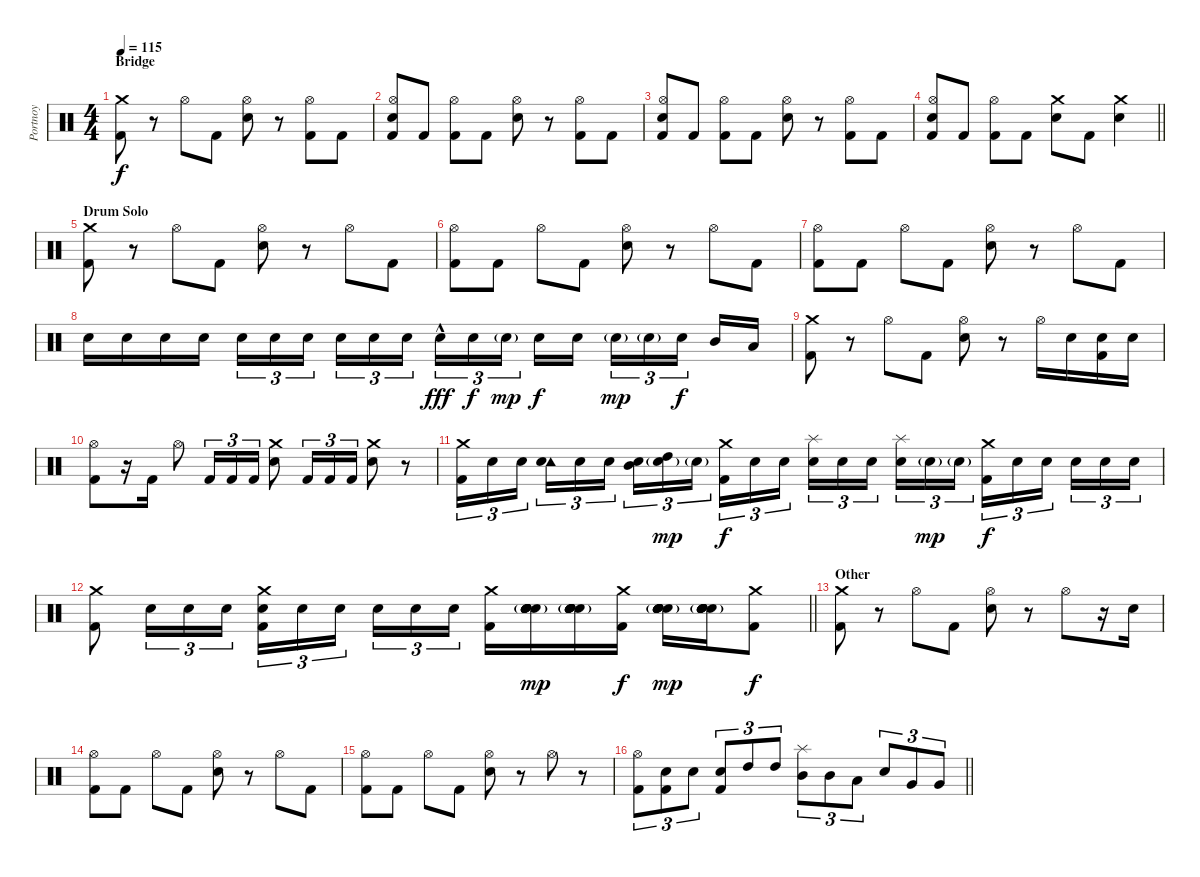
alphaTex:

\track ("Portnoy" "Portnoy") {instrument percussion}
\staff {score}
\articulation defaults
\ts (4 4)
\section ("" "Bridge")
\tempo 115
\clef neutral
\ks c
("Crash medium (hit)" "Kick (hit) 2").8{dy f} r.8 "Hi-Hat (open)".8 "Kick (hit) 2".8 ("Hi-Hat (open)" "Snare (hit) 2").8 r.8 ("Hi-Hat (open)" "Kick (hit) 2").8 "Kick (hit) 2".8 |
("Hi-Hat (open)" "Snare (hit) 2" "Kick (hit) 2").8 "Kick (hit) 2".8 ("Hi-Hat (open)" "Kick (hit) 2").8 "Kick (hit) 2".8 ("Hi-Hat (open)" "Snare (hit) 2").8 r.8 ("Hi-Hat (open)" "Kick (hit) 2").8 "Kick (hit) 2".8 |
("Hi-Hat (open)" "Snare (hit) 2" "Kick (hit) 2").8 "Kick (hit) 2".8 ("Hi-Hat (open)" "Kick (hit) 2").8 "Kick (hit) 2".8 ("Hi-Hat (open)" "Snare (hit) 2").8 r.8 ("Hi-Hat (open)" "Kick (hit) 2").8 "Kick (hit) 2".8 |
\barLineRight lightlight
("Hi-Hat (open)" "Snare (hit) 2" "Kick (hit) 2").8 "Kick (hit) 2".8 ("Hi-Hat (open)" "Kick (hit) 2").8 "Kick (hit) 2".8 ("Crash medium (hit)" "Snare (hit) 2").8 "Kick (hit) 2".8 ("Crash medium (hit)" "Snare (hit) 2").4 |
\section ("" "Drum Solo")
("Crash medium (hit)" "Kick (hit) 2").8 r.8 "Hi-Hat (open)".8 "Kick (hit) 2".8 ("Hi-Hat (open)" "Snare (hit) 2").8 r.8 "Hi-Hat (open)".8 "Kick (hit) 2".8 |
("Hi-Hat (open)" "Kick (hit) 2").8 "Kick (hit) 2".8 "Hi-Hat (open)".8 "Kick (hit) 2".8 ("Hi-Hat (open)" "Snare (hit) 2").8 r.8 "Hi-Hat (open)".8 "Kick (hit) 2".8 |
("Hi-Hat (open)" "Kick (hit) 2").8 "Kick (hit) 2".8 "Hi-Hat (open)".8 "Kick (hit) 2".8 ("Hi-Hat (open)" "Snare (hit) 2").8 r.8 "Hi-Hat (open)".8 "Kick (hit) 2".8 |
"Snare (hit) 2".16{volume 7} "Snare (hit) 2".16{volume 13} "Snare (hit) 2".16 "Snare (hit) 2".16 "Snare (hit) 2".16{tu (3 2)} "Snare (hit) 2".16{tu (3 2)} "Snare (hit) 2".16{tu (3 2) beam splitsecondary} "Snare (hit) 2".16{tu (3 2)} "Snare (hit) 2".16{tu (3 2)} "Snare (hit) 2".16{tu (3 2)} "Snare (hit) 2"{hac}.16{tu (3 2) dy fff} "Snare (hit) 2".16{tu (3 2) dy f} "Snare (hit) 2"{g}.16{tu (3 2) dy mp beam splitsecondary} "Snare (hit) 2".16{dy f} "Snare (hit) 2".16 "Snare (hit) 2"{g}.16{tu (3 2) dy mp} "Snare (hit) 2"{g}.16{tu (3 2)} "Snare (hit) 2".16{tu (3 2) dy f beam splitsecondary} "Mid Tom (hit)".16 "Low Tom (hit)".16 |
("Crash medium (hit)" "Kick (hit) 2").8 r.8 "Hi-Hat (open)".8 "Kick (hit) 2".8 ("Hi-Hat (open)" "Snare (hit) 2").8 r.8 "Hi-Hat (open)".16 "Snare (hit) 2".16 ("Snare (hit) 2" "Kick (hit) 2").16 "Snare (hit) 2".16 |
("Hi-Hat (open)" "Kick (hit) 2").8 r.16 "Kick (hit) 2".16 "Hi-Hat (open)".8 "Kick (hit) 2".16{tu (3 2)} "Kick (hit) 2".16{tu (3 2)} "Kick (hit) 2".16{tu (3 2)} ("Crash medium (hit)" "Snare (hit) 2").8 "Kick (hit) 2".16{tu (3 2)} "Kick (hit) 2".16{tu (3 2)} "Kick (hit) 2".16{tu (3 2)} ("Crash medium (hit)" "Snare (hit) 2").8 r.8 |
("Crash medium (hit)" "Kick (hit) 2").16{tu (3 2)} "Snare (hit) 2".16{tu (3 2)} "Snare (hit) 2".16{tu (3 2) beam splitsecondary} ("Tambourine (hit)" "Snare (hit) 2").16{tu (3 2)} "Snare (hit) 2".16{tu (3 2)} "Snare (hit) 2".16{tu (3 2)} ("Mid Tom (hit)" "Snare (hit) 2").16{tu (3 2)} ("High Tom (hit)" "Snare (hit) 2"{g}).16{tu (3 2) dy mp} "Snare (hit) 2"{g}.16{tu (3 2) beam splitsecondary} ("Crash medium (hit)" "Kick (hit) 2").16{tu (3 2) dy f} "Snare (hit) 2".16{tu (3 2)} "Snare (hit) 2".16{tu (3 2)} ("Splash (hit)" "Snare (hit) 2").16{tu (3 2)} "Snare (hit) 2".16{tu (3 2)} "Snare (hit) 2".16{tu (3 2) beam splitsecondary} ("Splash (hit)" "Snare (hit) 2").16{tu (3 2)} "Snare (hit) 2"{g}.16{tu (3 2) dy mp} "Snare (hit) 2"{g}.16{tu (3 2)} ("Crash medium (hit)" "Kick (hit) 2").16{tu (3 2) dy f} "Snare (hit) 2".16{tu (3 2)} "Snare (hit) 2".16{tu (3 2) beam splitsecondary} "Snare (hit) 2".16{tu (3 2)} "Snare (hit) 2".16{tu (3 2)} "Snare (hit) 2".16{tu (3 2)} |
\barLineRight lightlight
("Crash medium (hit)" "Kick (hit) 2").8 "Snare (hit) 2".16{tu (3 2)} "Snare (hit) 2".16{tu (3 2)} "Snare (hit) 2".16{tu (3 2)} ("Crash medium (hit)" "Snare (hit) 2" "Kick (hit) 2").16{tu (3 2)} "Snare (hit) 2".16{tu (3 2)} "Snare (hit) 2".16{tu (3 2) beam splitsecondary} "Snare (hit) 2".16{tu (3 2)} "Snare (hit) 2".16{tu (3 2)} "Snare (hit) 2".16{tu (3 2)} ("Crash medium (hit)" "Kick (hit) 2").16 ("Snare (hit) 2"{g} "Snare (hit) 2"{g} "Snare (hit) 2"{g} "Snare (hit) 2"{g} "Snare (hit) 2"{g} "Snare (hit) 2"{g}).16{dy mp} ("Snare (hit) 2"{g} "Snare (hit) 2"{g} "Snare (hit) 2"{g} "Snare (hit) 2"{g} "Snare (hit) 2"{g} "Snare (hit) 2"{g}).16 ("Crash medium (hit)" "Kick (hit) 2").16{dy f} ("Snare (hit) 2"{g} "Snare (hit) 2"{g} "Snare (hit) 2"{g} "Snare (hit) 2"{g} "Snare (hit) 2"{g} "Snare (hit) 2"{g}).16{dy mp} ("Snare (hit) 2"{g} "Snare (hit) 2"{g} "Snare (hit) 2"{g} "Snare (hit) 2"{g} "Snare (hit) 2"{g} "Snare (hit) 2"{g}).16 ("Crash medium (hit)" "Kick (hit) 2").8{dy f} |
\section ("" "Other")
("Crash medium (hit)" "Kick (hit) 2").8 r.8 "Hi-Hat (open)".8 "Kick (hit) 2".8 ("Hi-Hat (open)" "Snare (hit) 2").8 r.8 "Hi-Hat (open)".8 r.16 "Snare (hit) 2".16 |
("Hi-Hat (open)" "Kick (hit) 2").8 "Kick (hit) 2".8 "Hi-Hat (open)".8 "Kick (hit) 2".8 ("Hi-Hat (open)" "Snare (hit) 2").8 r.8 "Hi-Hat (open)".8 "Kick (hit) 2".8 |
("Hi-Hat (open)" "Kick (hit) 2").8 "Kick (hit) 2".8 "Hi-Hat (open)".8 "Kick (hit) 2".8 ("Hi-Hat (open)" "Snare (hit) 2").8 r.8 "Hi-Hat (open)".8 r.8 |
\barLineRight lightlight
("Hi-Hat (open)" "Kick (hit) 2").8{tu (3 2)} ("Snare (hit) 2" "Kick (hit) 2").8{tu (3 2)} "Snare (hit) 2".8{tu (3 2)} ("Snare (hit) 2" "Kick (hit) 2").8{tu (3 2)} "High Tom (hit)".8{tu (3 2)} "High Tom (hit)".8{tu (3 2)} ("Splash (hit)" "Mid Tom (hit)").8{tu (3 2)} "Mid Tom (hit)".8{tu (3 2)} "Low Tom (hit)".8{tu (3 2)} "Snare (hit) 2".8{tu (3 2)} "Very Low Tom (hit)".8{tu (3 2)} "Very Low Tom (hit)".8{tu (3 2)}
